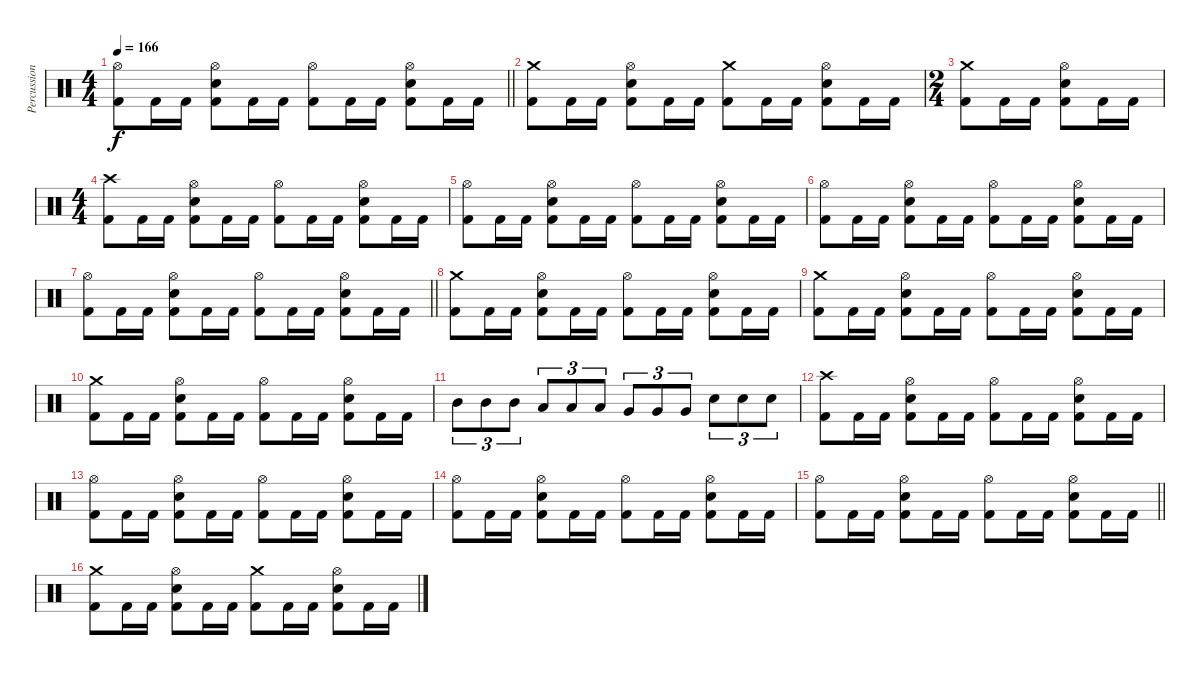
\track ("Percussion" "Percussion") {instrument percussion}
\staff {score}
\articulation defaults
\ts (4 4)
\tempo 166
\clef neutral
\barLineRight lightlight
\ks c
("Hi-Hat (open)" "Kick (hit) 2").8{dy f} "Kick (hit) 2".16 "Kick (hit) 2".16 ("Hi-Hat (open)" "Snare (hit) 2" "Kick (hit) 2").8 "Kick (hit) 2".16 "Kick (hit) 2".16 ("Hi-Hat (open)" "Kick (hit) 2").8 "Kick (hit) 2".16 "Kick (hit) 2".16 ("Hi-Hat (open)" "Snare (hit) 2" "Kick (hit) 2").8 "Kick (hit) 2".16 "Kick (hit) 2".16 |
("Crash medium (hit)" "Kick (hit) 2").8 "Kick (hit) 2".16 "Kick (hit) 2".16 ("Hi-Hat (open)" "Snare (hit) 2" "Kick (hit) 2").8 "Kick (hit) 2".16 "Kick (hit) 2".16 ("Crash medium (hit)" "Kick (hit) 2").8 "Kick (hit) 2".16 "Kick (hit) 2".16 ("Hi-Hat (open)" "Snare (hit) 2" "Kick (hit) 2").8 "Kick (hit) 2".16 "Kick (hit) 2".16 |
\ts (2 4)
("Crash medium (hit)" "Kick (hit) 2").8 "Kick (hit) 2".16 "Kick (hit) 2".16 ("Hi-Hat (open)" "Snare (hit) 2" "Kick (hit) 2").8 "Kick (hit) 2".16 "Kick (hit) 2".16 |
\ts (4 4)
("Crash high (hit)" "Kick (hit) 2").8 "Kick (hit) 2".16 "Kick (hit) 2".16 ("Hi-Hat (open)" "Snare (hit) 2" "Kick (hit) 2").8 "Kick (hit) 2".16 "Kick (hit) 2".16 ("Hi-Hat (open)" "Kick (hit) 2").8 "Kick (hit) 2".16 "Kick (hit) 2".16 ("Hi-Hat (open)" "Snare (hit) 2" "Kick (hit) 2").8 "Kick (hit) 2".16 "Kick (hit) 2".16 |
("Hi-Hat (open)" "Kick (hit) 2").8 "Kick (hit) 2".16 "Kick (hit) 2".16 ("Hi-Hat (open)" "Snare (hit) 2" "Kick (hit) 2").8 "Kick (hit) 2".16 "Kick (hit) 2".16 ("Hi-Hat (open)" "Kick (hit) 2").8 "Kick (hit) 2".16 "Kick (hit) 2".16 ("Hi-Hat (open)" "Snare (hit) 2" "Kick (hit) 2").8 "Kick (hit) 2".16 "Kick (hit) 2".16 |
("Hi-Hat (open)" "Kick (hit) 2").8 "Kick (hit) 2".16 "Kick (hit) 2".16 ("Hi-Hat (open)" "Snare (hit) 2" "Kick (hit) 2").8 "Kick (hit) 2".16 "Kick (hit) 2".16 ("Hi-Hat (open)" "Kick (hit) 2").8 "Kick (hit) 2".16 "Kick (hit) 2".16 ("Hi-Hat (open)" "Snare (hit) 2" "Kick (hit) 2").8 "Kick (hit) 2".16 "Kick (hit) 2".16 |
\barLineRight lightlight
("Hi-Hat (open)" "Kick (hit) 2").8 "Kick (hit) 2".16 "Kick (hit) 2".16 ("Hi-Hat (open)" "Snare (hit) 2" "Kick (hit) 2").8 "Kick (hit) 2".16 "Kick (hit) 2".16 ("Hi-Hat (open)" "Kick (hit) 2").8 "Kick (hit) 2".16 "Kick (hit) 2".16 ("Hi-Hat (open)" "Snare (hit) 2" "Kick (hit) 2").8 "Kick (hit) 2".16 "Kick (hit) 2".16 |
("Crash medium (hit)" "Kick (hit) 2").8 "Kick (hit) 2".16 "Kick (hit) 2".16 ("Hi-Hat (open)" "Snare (hit) 2" "Kick (hit) 2").8 "Kick (hit) 2".16 "Kick (hit) 2".16 ("Hi-Hat (open)" "Kick (hit) 2").8 "Kick (hit) 2".16 "Kick (hit) 2".16 ("Hi-Hat (open)" "Snare (hit) 2" "Kick (hit) 2").8 "Kick (hit) 2".16 "Kick (hit) 2".16 |
("Crash medium (hit)" "Kick (hit) 2").8 "Kick (hit) 2".16 "Kick (hit) 2".16 ("Hi-Hat (open)" "Snare (hit) 2" "Kick (hit) 2").8 "Kick (hit) 2".16 "Kick (hit) 2".16 ("Hi-Hat (open)" "Kick (hit) 2").8 "Kick (hit) 2".16 "Kick (hit) 2".16 ("Hi-Hat (open)" "Snare (hit) 2" "Kick (hit) 2").8 "Kick (hit) 2".16 "Kick (hit) 2".16 |
("Crash medium (hit)" "Kick (hit) 2").8 "Kick (hit) 2".16 "Kick (hit) 2".16 ("Hi-Hat (open)" "Snare (hit) 2" "Kick (hit) 2").8 "Kick (hit) 2".16 "Kick (hit) 2".16 ("Hi-Hat (open)" "Kick (hit) 2").8 "Kick (hit) 2".16 "Kick (hit) 2".16 ("Hi-Hat (open)" "Snare (hit) 2" "Kick (hit) 2").8 "Kick (hit) 2".16 "Kick (hit) 2".16 |
"Mid Tom (hit)".8{tu (3 2)} "Mid Tom (hit)".8{tu (3 2)} "Mid Tom (hit)".8{tu (3 2)} "Low Tom (hit)".8{tu (3 2)} "Low Tom (hit)".8{tu (3 2)} "Low Tom (hit)".8{tu (3 2)} "Very Low Tom (hit)".8{tu (3 2)} "Very Low Tom (hit)".8{tu (3 2)} "Very Low Tom (hit)".8{tu (3 2)} "Snare (hit) 2".8{tu (3 2)} "Snare (hit) 2".8{tu (3 2)} "Snare (hit) 2".8{tu (3 2)} |
("Crash high (hit)" "Kick (hit) 2").8 "Kick (hit) 2".16 "Kick (hit) 2".16 ("Hi-Hat (open)" "Snare (hit) 2" "Kick (hit) 2").8 "Kick (hit) 2".16 "Kick (hit) 2".16 ("Hi-Hat (open)" "Kick (hit) 2").8 "Kick (hit) 2".16 "Kick (hit) 2".16 ("Hi-Hat (open)" "Snare (hit) 2" "Kick (hit) 2").8 "Kick (hit) 2".16 "Kick (hit) 2".16 |
("Hi-Hat (open)" "Kick (hit) 2").8 "Kick (hit) 2".16 "Kick (hit) 2".16 ("Hi-Hat (open)" "Snare (hit) 2" "Kick (hit) 2").8 "Kick (hit) 2".16 "Kick (hit) 2".16 ("Hi-Hat (open)" "Kick (hit) 2").8 "Kick (hit) 2".16 "Kick (hit) 2".16 ("Hi-Hat (open)" "Snare (hit) 2" "Kick (hit) 2").8 "Kick (hit) 2".16 "Kick (hit) 2".16 |
("Hi-Hat (open)" "Kick (hit) 2").8 "Kick (hit) 2".16 "Kick (hit) 2".16 ("Hi-Hat (open)" "Snare (hit) 2" "Kick (hit) 2").8 "Kick (hit) 2".16 "Kick (hit) 2".16 ("Hi-Hat (open)" "Kick (hit) 2").8 "Kick (hit) 2".16 "Kick (hit) 2".16 ("Hi-Hat (open)" "Snare (hit) 2" "Kick (hit) 2").8 "Kick (hit) 2".16 "Kick (hit) 2".16 |
\barLineRight lightlight
("Hi-Hat (open)" "Kick (hit) 2").8 "Kick (hit) 2".16 "Kick (hit) 2".16 ("Hi-Hat (open)" "Snare (hit) 2" "Kick (hit) 2").8 "Kick (hit) 2".16 "Kick (hit) 2".16 ("Hi-Hat (open)" "Kick (hit) 2").8 "Kick (hit) 2".16 "Kick (hit) 2".16 ("Hi-Hat (open)" "Snare (hit) 2" "Kick (hit) 2").8 "Kick (hit) 2".16 "Kick (hit) 2".16 |
("Crash medium (hit)" "Kick (hit) 2").8 "Kick (hit) 2".16 "Kick (hit) 2".16 ("Hi-Hat (open)" "Snare (hit) 2" "Kick (hit) 2").8 "Kick (hit) 2".16 "Kick (hit) 2".16 ("Crash medium (hit)" "Kick (hit) 2").8 "Kick (hit) 2".16 "Kick (hit) 2".16 ("Hi-Hat (open)" "Snare (hit) 2" "Kick (hit) 2").8 "Kick (hit) 2".16 "Kick (hit) 2".16
